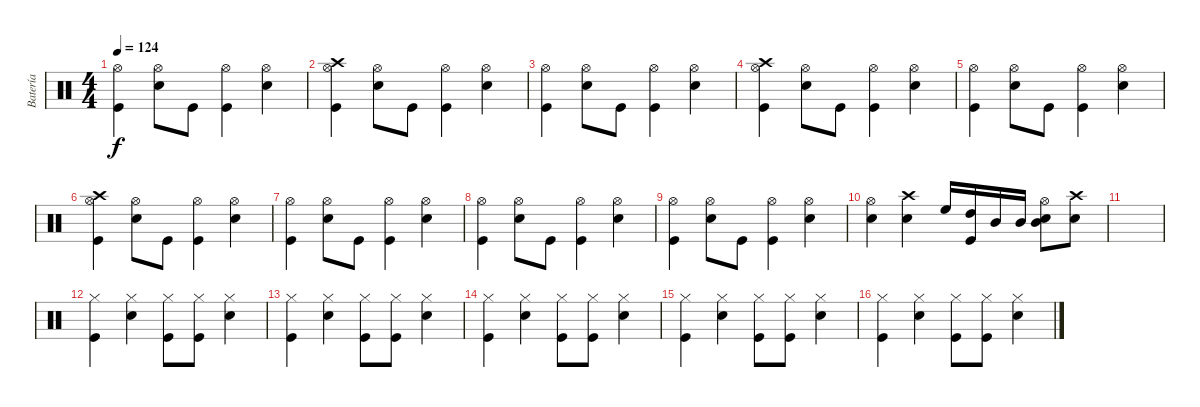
\track ("Batería" "Batería") {instrument percussion}
\staff {score}
\articulation defaults
\ts (4 4)
\tempo 124
\clef neutral
\ks c
("Hi-Hat (open)" "Kick (hit)").4{dy f} ("Hi-Hat (open)" "Snare (hit) 2").8 "Kick (hit)".8 ("Hi-Hat (open)" "Kick (hit)").4 ("Hi-Hat (open)" "Snare (hit) 2").4 |
("Crash high (hit)" "Hi-Hat (open)" "Kick (hit)").4 ("Hi-Hat (open)" "Snare (hit) 2").8 "Kick (hit)".8 ("Hi-Hat (open)" "Kick (hit)").4 ("Hi-Hat (open)" "Snare (hit) 2").4 |
("Hi-Hat (open)" "Kick (hit)").4 ("Hi-Hat (open)" "Snare (hit) 2").8 "Kick (hit)".8 ("Hi-Hat (open)" "Kick (hit)").4 ("Hi-Hat (open)" "Snare (hit) 2").4 |
("Crash high (hit)" "Hi-Hat (open)" "Kick (hit)").4 ("Hi-Hat (open)" "Snare (hit) 2").8 "Kick (hit)".8 ("Hi-Hat (open)" "Kick (hit)").4 ("Hi-Hat (open)" "Snare (hit) 2").4 |
("Hi-Hat (open)" "Kick (hit)").4 ("Hi-Hat (open)" "Snare (hit) 2").8 "Kick (hit)".8 ("Hi-Hat (open)" "Kick (hit)").4 ("Hi-Hat (open)" "Snare (hit) 2").4 |
("Crash high (hit)" "Hi-Hat (open)" "Kick (hit)").4 ("Hi-Hat (open)" "Snare (hit) 2").8 "Kick (hit)".8 ("Hi-Hat (open)" "Kick (hit)").4 ("Hi-Hat (open)" "Snare (hit) 2").4 |
("Hi-Hat (open)" "Kick (hit)").4 ("Hi-Hat (open)" "Snare (hit) 2").8 "Kick (hit)".8 ("Hi-Hat (open)" "Kick (hit)").4 ("Hi-Hat (open)" "Snare (hit) 2").4 |
("Hi-Hat (open)" "Kick (hit)").4 ("Hi-Hat (open)" "Snare (hit) 2").8 "Kick (hit)".8 ("Hi-Hat (open)" "Kick (hit)").4 ("Hi-Hat (open)" "Snare (hit) 2").4 |
("Hi-Hat (open)" "Kick (hit)").4 ("Hi-Hat (open)" "Snare (hit) 2").8 "Kick (hit)".8 ("Hi-Hat (open)" "Kick (hit)").4 ("Hi-Hat (open)" "Snare (hit) 2").4 |
("Hi-Hat (open)" "Snare (hit) 2").4 ("Crash high (hit)" "Snare (hit) 2").4 "High Floor Tom (hit)".16 ("Kick (hit)" "High Tom (hit)").16 "Mid Tom (hit)".16 "Mid Tom (hit)".16 ("Hi-Hat (open)" "Snare (hit) 2" "Mid Tom (hit)").8 ("Crash high (hit)" "Snare (hit) 2").8 |
|
("Hi-Hat (closed)" "Kick (hit)").4 ("Hi-Hat (closed)" "Snare (hit) 2").4 ("Hi-Hat (closed)" "Kick (hit)").8 ("Hi-Hat (closed)" "Kick (hit)").8 ("Hi-Hat (closed)" "Snare (hit) 2").4 |
("Hi-Hat (closed)" "Kick (hit)").4 ("Hi-Hat (closed)" "Snare (hit) 2").4 ("Hi-Hat (closed)" "Kick (hit)").8 ("Hi-Hat (closed)" "Kick (hit)").8 ("Hi-Hat (closed)" "Snare (hit) 2").4 |
("Hi-Hat (closed)" "Kick (hit)").4 ("Hi-Hat (closed)" "Snare (hit) 2").4 ("Hi-Hat (closed)" "Kick (hit)").8 ("Hi-Hat (closed)" "Kick (hit)").8 ("Hi-Hat (closed)" "Snare (hit) 2").4 |
("Hi-Hat (closed)" "Kick (hit)").4 ("Hi-Hat (closed)" "Snare (hit) 2").4 ("Hi-Hat (closed)" "Kick (hit)").8 ("Hi-Hat (closed)" "Kick (hit)").8 ("Hi-Hat (closed)" "Snare (hit) 2").4 |
("Hi-Hat (closed)" "Kick (hit)").4 ("Hi-Hat (closed)" "Snare (hit) 2").4 ("Hi-Hat (closed)" "Kick (hit)").8 ("Hi-Hat (closed)" "Kick (hit)").8 ("Hi-Hat (closed)" "Snare (hit) 2").4
